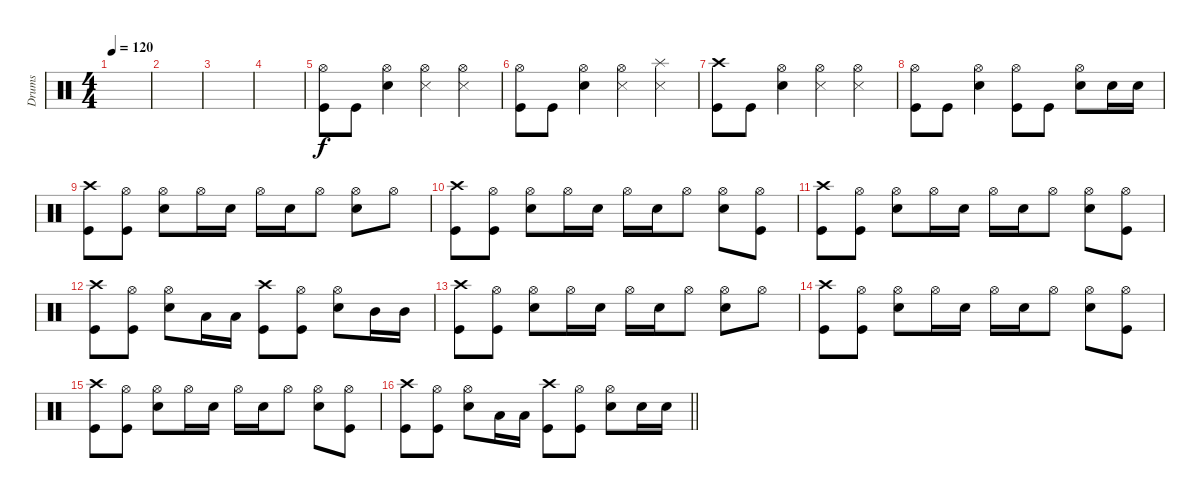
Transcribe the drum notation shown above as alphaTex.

\track ("Drums" "Drums") {instrument percussion}
\staff {score}
\articulation defaults
\ts (4 4)
\tempo 120
\clef neutral
\ks c
|
|
|
|
("Hi-Hat (open)" "Kick (hit)").8 "Kick (hit)".8 ("Hi-Hat (open)" "Snare (hit) 2").4 ("Hi-Hat (open)" "Snare (side stick) 3").4 ("Hi-Hat (open)" "Snare (side stick) 3").4 |
("Hi-Hat (open)" "Kick (hit)").8 "Kick (hit)".8 ("Hi-Hat (open)" "Snare (hit) 2").4 ("Hi-Hat (open)" "Snare (side stick) 3").4 ("Splash (hit)" "Snare (side stick) 3").4 |
("Crash high (hit)" "Kick (hit)").8 "Kick (hit)".8 ("Hi-Hat (open)" "Snare (hit) 2").4 ("Hi-Hat (open)" "Snare (side stick) 3").4 ("Hi-Hat (open)" "Snare (side stick) 3").4 |
("Hi-Hat (open)" "Kick (hit)").8 "Kick (hit)".8 ("Hi-Hat (open)" "Snare (hit) 2").4 ("Hi-Hat (open)" "Kick (hit)").8 "Kick (hit)".8 ("Hi-Hat (open)" "Snare (hit) 2").8 "Snare (hit) 2".16 "Snare (hit) 2".16 |
("Kick (hit)" "Crash high (hit)").8 ("Kick (hit)" "Hi-Hat (open)").8 ("Snare (hit) 2" "Hi-Hat (open)").8 "Hi-Hat (open)".16 "Snare (hit) 2".16 "Hi-Hat (open)".16 "Snare (hit) 2".16 "Hi-Hat (open)".8 ("Snare (hit) 2" "Hi-Hat (open)").8 "Hi-Hat (open)".8 |
("Kick (hit)" "Crash high (hit)").8 ("Kick (hit)" "Hi-Hat (open)").8 ("Snare (hit) 2" "Hi-Hat (open)").8 "Hi-Hat (open)".16 "Snare (hit) 2".16 "Hi-Hat (open)".16 "Snare (hit) 2".16 "Hi-Hat (open)".8 ("Snare (hit) 2" "Hi-Hat (open)").8 ("Kick (hit)" "Hi-Hat (open)").8 |
("Kick (hit)" "Crash high (hit)").8 ("Kick (hit)" "Hi-Hat (open)").8 ("Snare (hit) 2" "Hi-Hat (open)").8 "Hi-Hat (open)".16 "Snare (hit) 2".16 "Hi-Hat (open)".16 "Snare (hit) 2".16 "Hi-Hat (open)".8 ("Snare (hit) 2" "Hi-Hat (open)").8 ("Kick (hit)" "Hi-Hat (open)").8 |
("Kick (hit)" "Crash high (hit)").8 ("Kick (hit)" "Hi-Hat (open)").8 ("Snare (hit) 2" "Hi-Hat (open)").8 "Low Tom (hit)".16 "Low Tom (hit)".16 ("Kick (hit)" "Crash high (hit)").8 ("Kick (hit)" "Hi-Hat (open)").8 ("Snare (hit) 2" "Hi-Hat (open)").8 "Mid Tom (hit)".16 "Mid Tom (hit)".16 |
("Kick (hit)" "Crash high (hit)").8 ("Kick (hit)" "Hi-Hat (open)").8 ("Snare (hit) 2" "Hi-Hat (open)").8 "Hi-Hat (open)".16 "Snare (hit) 2".16 "Hi-Hat (open)".16 "Snare (hit) 2".16 "Hi-Hat (open)".8 ("Snare (hit) 2" "Hi-Hat (open)").8 "Hi-Hat (open)".8 |
("Kick (hit)" "Crash high (hit)").8 ("Kick (hit)" "Hi-Hat (open)").8 ("Snare (hit) 2" "Hi-Hat (open)").8 "Hi-Hat (open)".16 "Snare (hit) 2".16 "Hi-Hat (open)".16 "Snare (hit) 2".16 "Hi-Hat (open)".8 ("Snare (hit) 2" "Hi-Hat (open)").8 ("Kick (hit)" "Hi-Hat (open)").8 |
("Kick (hit)" "Crash high (hit)").8 ("Kick (hit)" "Hi-Hat (open)").8 ("Snare (hit) 2" "Hi-Hat (open)").8 "Hi-Hat (open)".16 "Snare (hit) 2".16 "Hi-Hat (open)".16 "Snare (hit) 2".16 "Hi-Hat (open)".8 ("Snare (hit) 2" "Hi-Hat (open)").8 ("Kick (hit)" "Hi-Hat (open)").8 |
\barLineRight lightlight
("Kick (hit)" "Crash high (hit)").8 ("Kick (hit)" "Hi-Hat (open)").8 ("Snare (hit) 2" "Hi-Hat (open)").8 "Low Tom (hit)".16 "Low Tom (hit)".16 ("Kick (hit)" "Crash high (hit)").8 ("Kick (hit)" "Hi-Hat (open)").8 ("Snare (hit) 2" "Hi-Hat (open)").8 "Snare (hit) 2".16 "Snare (hit) 2".16
